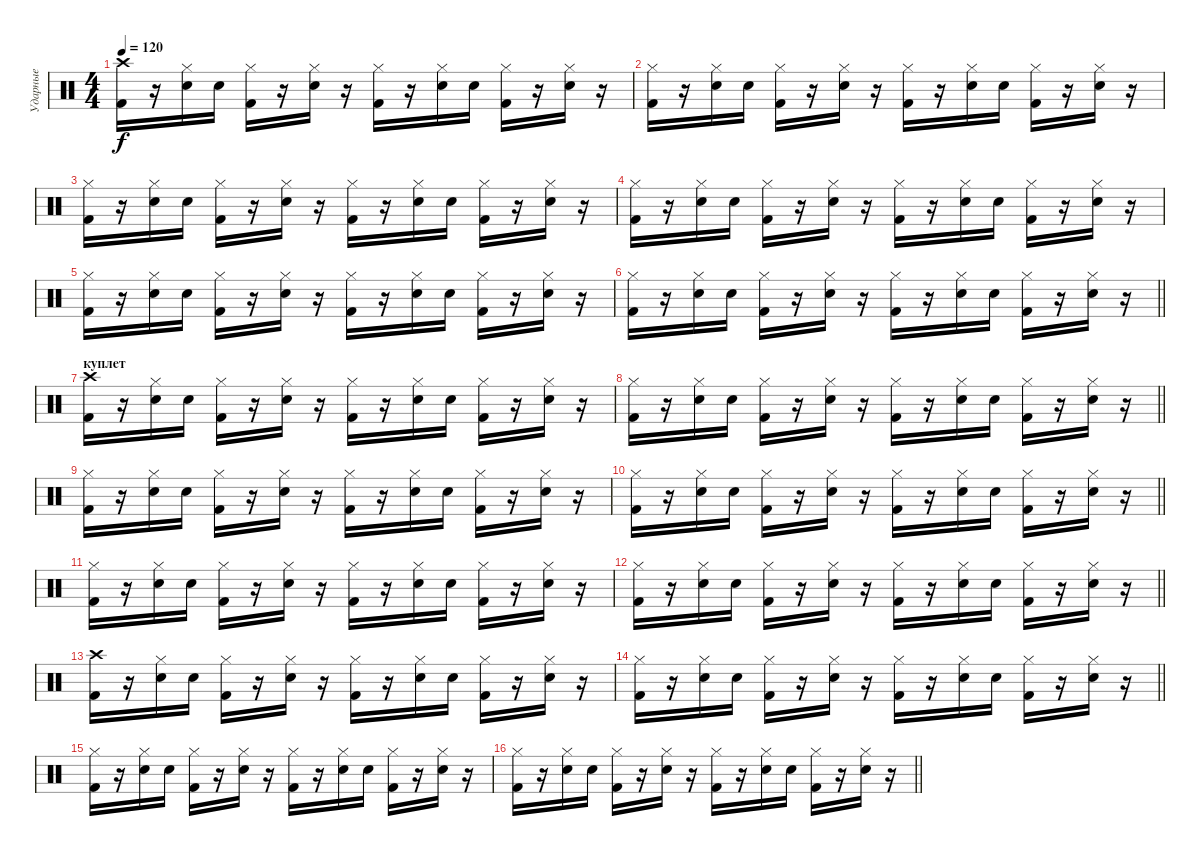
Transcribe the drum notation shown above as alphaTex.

\track ("Ударные" "Ударные") {instrument percussion}
\staff {score}
\articulation defaults
\ts (4 4)
\tempo 120
\clef neutral
\ks c
("Crash high (hit)" "Kick (hit) 2").16{dy f} r.16 ("Hi-Hat (closed)" "Electric Snare (hit)").16 "Electric Snare (hit)".16 ("Hi-Hat (closed)" "Kick (hit) 2").16 r.16 ("Hi-Hat (closed)" "Electric Snare (hit)").16 r.16 ("Hi-Hat (closed)" "Kick (hit) 2").16 r.16 ("Hi-Hat (closed)" "Electric Snare (hit)").16 "Electric Snare (hit)".16 ("Hi-Hat (closed)" "Kick (hit) 2").16 r.16 ("Hi-Hat (closed)" "Electric Snare (hit)").16 r.16 |
("Hi-Hat (closed)" "Kick (hit) 2").16 r.16 ("Hi-Hat (closed)" "Electric Snare (hit)").16 "Electric Snare (hit)".16 ("Hi-Hat (closed)" "Kick (hit) 2").16 r.16 ("Hi-Hat (closed)" "Electric Snare (hit)").16 r.16 ("Hi-Hat (closed)" "Kick (hit) 2").16 r.16 ("Hi-Hat (closed)" "Electric Snare (hit)").16 "Electric Snare (hit)".16 ("Hi-Hat (closed)" "Kick (hit) 2").16 r.16 ("Hi-Hat (closed)" "Electric Snare (hit)").16 r.16 |
("Hi-Hat (closed)" "Kick (hit) 2").16 r.16 ("Hi-Hat (closed)" "Electric Snare (hit)").16 "Electric Snare (hit)".16 ("Hi-Hat (closed)" "Kick (hit) 2").16 r.16 ("Hi-Hat (closed)" "Electric Snare (hit)").16 r.16 ("Hi-Hat (closed)" "Kick (hit) 2").16 r.16 ("Hi-Hat (closed)" "Electric Snare (hit)").16 "Electric Snare (hit)".16 ("Hi-Hat (closed)" "Kick (hit) 2").16 r.16 ("Hi-Hat (closed)" "Electric Snare (hit)").16 r.16 |
("Hi-Hat (closed)" "Kick (hit) 2").16 r.16 ("Hi-Hat (closed)" "Electric Snare (hit)").16 "Electric Snare (hit)".16 ("Hi-Hat (closed)" "Kick (hit) 2").16 r.16 ("Hi-Hat (closed)" "Electric Snare (hit)").16 r.16 ("Hi-Hat (closed)" "Kick (hit) 2").16 r.16 ("Hi-Hat (closed)" "Electric Snare (hit)").16 "Electric Snare (hit)".16 ("Hi-Hat (closed)" "Kick (hit) 2").16 r.16 ("Hi-Hat (closed)" "Electric Snare (hit)").16 r.16 |
("Hi-Hat (closed)" "Kick (hit) 2").16 r.16 ("Hi-Hat (closed)" "Electric Snare (hit)").16 "Electric Snare (hit)".16 ("Hi-Hat (closed)" "Kick (hit) 2").16 r.16 ("Hi-Hat (closed)" "Electric Snare (hit)").16 r.16 ("Hi-Hat (closed)" "Kick (hit) 2").16 r.16 ("Hi-Hat (closed)" "Electric Snare (hit)").16 "Electric Snare (hit)".16 ("Hi-Hat (closed)" "Kick (hit) 2").16 r.16 ("Hi-Hat (closed)" "Electric Snare (hit)").16 r.16 |
\barLineRight lightlight
("Hi-Hat (closed)" "Kick (hit) 2").16 r.16 ("Hi-Hat (closed)" "Electric Snare (hit)").16 "Electric Snare (hit)".16 ("Hi-Hat (closed)" "Kick (hit) 2").16 r.16 ("Hi-Hat (closed)" "Electric Snare (hit)").16 r.16 ("Hi-Hat (closed)" "Kick (hit) 2").16 r.16 ("Hi-Hat (closed)" "Electric Snare (hit)").16 "Electric Snare (hit)".16 ("Hi-Hat (closed)" "Kick (hit) 2").16 r.16 ("Hi-Hat (closed)" "Electric Snare (hit)").16 r.16 |
\section ("" "куплет")
("Crash high (hit)" "Kick (hit) 2").16 r.16 ("Hi-Hat (closed)" "Electric Snare (hit)").16 "Electric Snare (hit)".16 ("Hi-Hat (closed)" "Kick (hit) 2").16 r.16 ("Hi-Hat (closed)" "Electric Snare (hit)").16 r.16 ("Hi-Hat (closed)" "Kick (hit) 2").16 r.16 ("Hi-Hat (closed)" "Electric Snare (hit)").16 "Electric Snare (hit)".16 ("Hi-Hat (closed)" "Kick (hit) 2").16 r.16 ("Hi-Hat (closed)" "Electric Snare (hit)").16 r.16 |
\barLineRight lightlight
("Hi-Hat (closed)" "Kick (hit) 2").16 r.16 ("Hi-Hat (closed)" "Electric Snare (hit)").16 "Electric Snare (hit)".16 ("Hi-Hat (closed)" "Kick (hit) 2").16 r.16 ("Hi-Hat (closed)" "Electric Snare (hit)").16 r.16 ("Hi-Hat (closed)" "Kick (hit) 2").16 r.16 ("Hi-Hat (closed)" "Electric Snare (hit)").16 "Electric Snare (hit)".16 ("Hi-Hat (closed)" "Kick (hit) 2").16 r.16 ("Hi-Hat (closed)" "Electric Snare (hit)").16 r.16 |
("Hi-Hat (closed)" "Kick (hit) 2").16 r.16 ("Hi-Hat (closed)" "Electric Snare (hit)").16 "Electric Snare (hit)".16 ("Hi-Hat (closed)" "Kick (hit) 2").16 r.16 ("Hi-Hat (closed)" "Electric Snare (hit)").16 r.16 ("Hi-Hat (closed)" "Kick (hit) 2").16 r.16 ("Hi-Hat (closed)" "Electric Snare (hit)").16 "Electric Snare (hit)".16 ("Hi-Hat (closed)" "Kick (hit) 2").16 r.16 ("Hi-Hat (closed)" "Electric Snare (hit)").16 r.16 |
\barLineRight lightlight
("Hi-Hat (closed)" "Kick (hit) 2").16 r.16 ("Hi-Hat (closed)" "Electric Snare (hit)").16 "Electric Snare (hit)".16 ("Hi-Hat (closed)" "Kick (hit) 2").16 r.16 ("Hi-Hat (closed)" "Electric Snare (hit)").16 r.16 ("Hi-Hat (closed)" "Kick (hit) 2").16 r.16 ("Hi-Hat (closed)" "Electric Snare (hit)").16 "Electric Snare (hit)".16 ("Hi-Hat (closed)" "Kick (hit) 2").16 r.16 ("Hi-Hat (closed)" "Electric Snare (hit)").16 r.16 |
("Hi-Hat (closed)" "Kick (hit) 2").16 r.16 ("Hi-Hat (closed)" "Electric Snare (hit)").16 "Electric Snare (hit)".16 ("Hi-Hat (closed)" "Kick (hit) 2").16 r.16 ("Hi-Hat (closed)" "Electric Snare (hit)").16 r.16 ("Hi-Hat (closed)" "Kick (hit) 2").16 r.16 ("Hi-Hat (closed)" "Electric Snare (hit)").16 "Electric Snare (hit)".16 ("Hi-Hat (closed)" "Kick (hit) 2").16 r.16 ("Hi-Hat (closed)" "Electric Snare (hit)").16 r.16 |
\barLineRight lightlight
("Hi-Hat (closed)" "Kick (hit) 2").16 r.16 ("Hi-Hat (closed)" "Electric Snare (hit)").16 "Electric Snare (hit)".16 ("Hi-Hat (closed)" "Kick (hit) 2").16 r.16 ("Hi-Hat (closed)" "Electric Snare (hit)").16 r.16 ("Hi-Hat (closed)" "Kick (hit) 2").16 r.16 ("Hi-Hat (closed)" "Electric Snare (hit)").16 "Electric Snare (hit)".16 ("Hi-Hat (closed)" "Kick (hit) 2").16 r.16 ("Hi-Hat (closed)" "Electric Snare (hit)").16 r.16 |
("Crash high (hit)" "Kick (hit) 2").16 r.16 ("Hi-Hat (closed)" "Electric Snare (hit)").16 "Electric Snare (hit)".16 ("Hi-Hat (closed)" "Kick (hit) 2").16 r.16 ("Hi-Hat (closed)" "Electric Snare (hit)").16 r.16 ("Hi-Hat (closed)" "Kick (hit) 2").16 r.16 ("Hi-Hat (closed)" "Electric Snare (hit)").16 "Electric Snare (hit)".16 ("Hi-Hat (closed)" "Kick (hit) 2").16 r.16 ("Hi-Hat (closed)" "Electric Snare (hit)").16 r.16 |
\barLineRight lightlight
("Hi-Hat (closed)" "Kick (hit) 2").16 r.16 ("Hi-Hat (closed)" "Electric Snare (hit)").16 "Electric Snare (hit)".16 ("Hi-Hat (closed)" "Kick (hit) 2").16 r.16 ("Hi-Hat (closed)" "Electric Snare (hit)").16 r.16 ("Hi-Hat (closed)" "Kick (hit) 2").16 r.16 ("Hi-Hat (closed)" "Electric Snare (hit)").16 "Electric Snare (hit)".16 ("Hi-Hat (closed)" "Kick (hit) 2").16 r.16 ("Hi-Hat (closed)" "Electric Snare (hit)").16 r.16 |
("Hi-Hat (closed)" "Kick (hit) 2").16 r.16 ("Hi-Hat (closed)" "Electric Snare (hit)").16 "Electric Snare (hit)".16 ("Hi-Hat (closed)" "Kick (hit) 2").16 r.16 ("Hi-Hat (closed)" "Electric Snare (hit)").16 r.16 ("Hi-Hat (closed)" "Kick (hit) 2").16 r.16 ("Hi-Hat (closed)" "Electric Snare (hit)").16 "Electric Snare (hit)".16 ("Hi-Hat (closed)" "Kick (hit) 2").16 r.16 ("Hi-Hat (closed)" "Electric Snare (hit)").16 r.16 |
\barLineRight lightlight
("Hi-Hat (closed)" "Kick (hit) 2").16 r.16 ("Hi-Hat (closed)" "Electric Snare (hit)").16 "Electric Snare (hit)".16 ("Hi-Hat (closed)" "Kick (hit) 2").16 r.16 ("Hi-Hat (closed)" "Electric Snare (hit)").16 r.16 ("Hi-Hat (closed)" "Kick (hit) 2").16 r.16 ("Hi-Hat (closed)" "Electric Snare (hit)").16 "Electric Snare (hit)".16 ("Hi-Hat (closed)" "Kick (hit) 2").16 r.16 ("Hi-Hat (closed)" "Electric Snare (hit)").16 r.16
